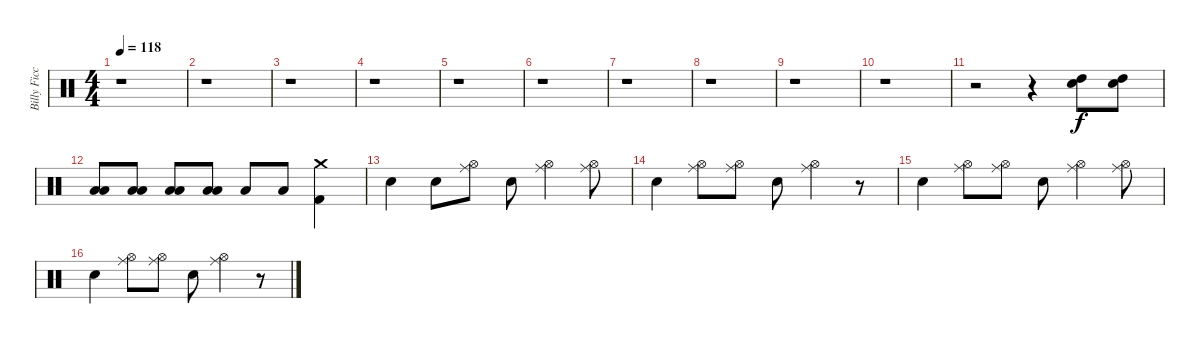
\track ("Billy Ficca" "Billy Ficc") {instrument percussion}
\staff {score}
\articulation defaults
\ts (4 4)
\tempo 118
\clef neutral
\ks c
r.1{dy f} |
r.1 |
r.1 |
r.1 |
r.1 |
r.1 |
r.1 |
r.1 |
r.1 |
r.1 |
r.2 r.4 ("High Tom (hit)" "Snare (hit) 2").8 ("High Tom (hit)" "Snare (hit) 2").8 |
("Low Tom (hit)" "Low Tom (hit)").8 ("Low Tom (hit)" "Low Tom (hit)").8 ("Low Tom (hit)" "Low Tom (hit)").8 ("Low Tom (hit)" "Low Tom (hit)").8 "Low Floor Tom (hit)".8 "Low Floor Tom (hit)".8 ("Crash medium (hit)" "Kick (hit) 2").4 |
"Electric Snare (hit)".4 "Snare (hit) 2".8 ("Hi-Hat (open)" "Ride (middle)").8 "Snare (hit) 2".8 ("Hi-Hat (open)" "Ride (middle)").4 ("Hi-Hat (open)" "Ride (middle)").8 |
"Snare (hit) 2".4 ("Hi-Hat (open)" "Ride (middle)").8 ("Hi-Hat (open)" "Ride (middle)").8 "Snare (hit) 2".8 ("Hi-Hat (open)" "Ride (middle)").4 r.8 |
"Snare (hit) 2".4 ("Hi-Hat (open)" "Ride (middle)").8 ("Hi-Hat (open)" "Ride (middle)").8 "Snare (hit) 2".8 ("Hi-Hat (open)" "Ride (middle)").4 ("Hi-Hat (open)" "Ride (middle)").8 |
"Snare (hit) 2".4 ("Hi-Hat (open)" "Ride (middle)").8 ("Hi-Hat (open)" "Ride (middle)").8 "Snare (hit) 2".8 ("Hi-Hat (open)" "Ride (middle)").4 r.8
